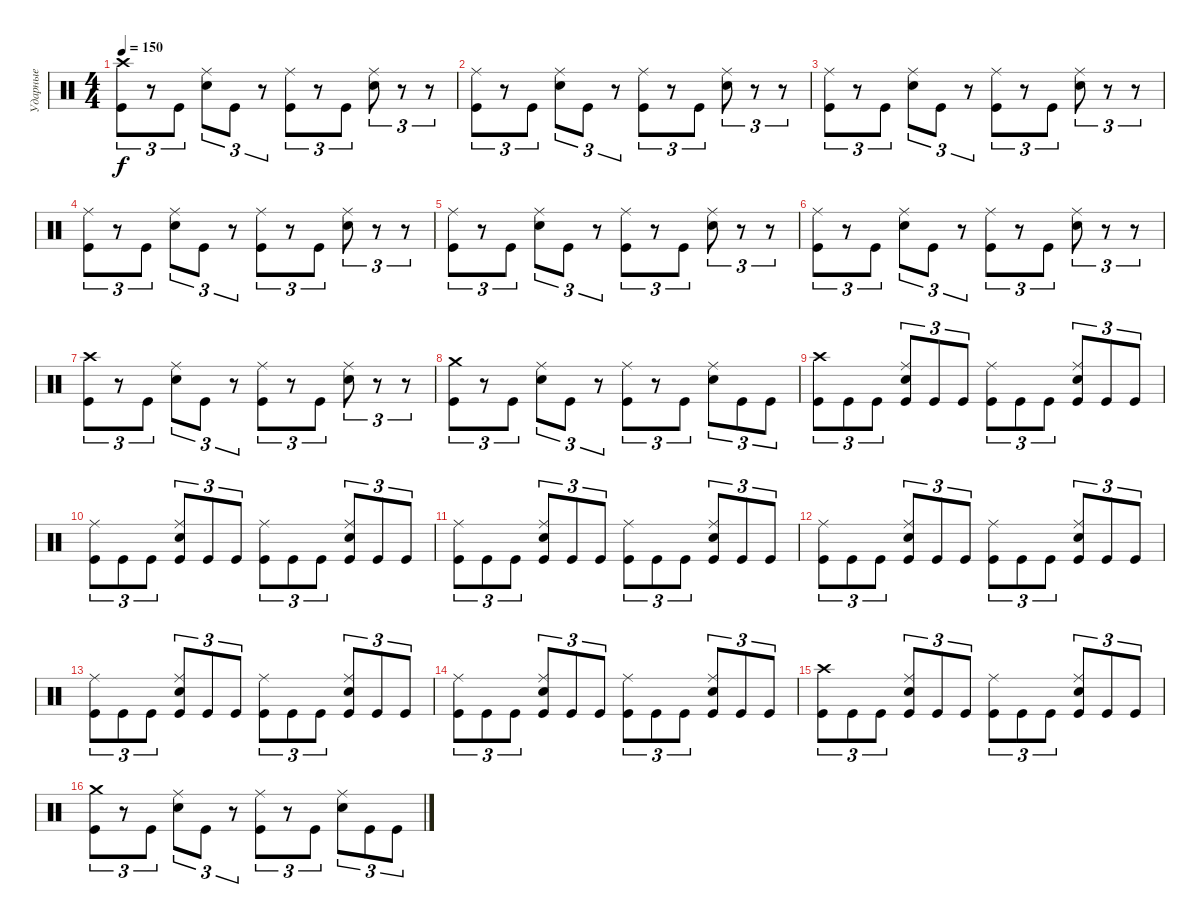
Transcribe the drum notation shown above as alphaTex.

\track ("Ударные" "Ударные") {instrument percussion}
\staff {score}
\articulation defaults
\ts (4 4)
\tempo 150
\clef neutral
\ks c
("Crash high (hit)" "Kick (hit)").8{tu (3 2) dy f} r.8{tu (3 2)} "Kick (hit)".8{tu (3 2)} ("Ride (middle)" "Snare (hit) 2").8{tu (3 2)} "Kick (hit)".8{tu (3 2)} r.8{tu (3 2)} ("Ride (middle)" "Kick (hit)").8{tu (3 2)} r.8{tu (3 2)} "Kick (hit)".8{tu (3 2)} ("Ride (middle)" "Snare (hit) 2").8{tu (3 2)} r.8{tu (3 2)} r.8{tu (3 2)} |
("Ride (middle)" "Kick (hit)").8{tu (3 2)} r.8{tu (3 2)} "Kick (hit)".8{tu (3 2)} ("Ride (middle)" "Snare (hit) 2").8{tu (3 2)} "Kick (hit)".8{tu (3 2)} r.8{tu (3 2)} ("Ride (middle)" "Kick (hit)").8{tu (3 2)} r.8{tu (3 2)} "Kick (hit)".8{tu (3 2)} ("Ride (middle)" "Snare (hit) 2").8{tu (3 2)} r.8{tu (3 2)} r.8{tu (3 2)} |
("Ride (middle)" "Kick (hit)").8{tu (3 2)} r.8{tu (3 2)} "Kick (hit)".8{tu (3 2)} ("Ride (middle)" "Snare (hit) 2").8{tu (3 2)} "Kick (hit)".8{tu (3 2)} r.8{tu (3 2)} ("Ride (middle)" "Kick (hit)").8{tu (3 2)} r.8{tu (3 2)} "Kick (hit)".8{tu (3 2)} ("Ride (middle)" "Snare (hit) 2").8{tu (3 2)} r.8{tu (3 2)} r.8{tu (3 2)} |
("Ride (middle)" "Kick (hit)").8{tu (3 2)} r.8{tu (3 2)} "Kick (hit)".8{tu (3 2)} ("Ride (middle)" "Snare (hit) 2").8{tu (3 2)} "Kick (hit)".8{tu (3 2)} r.8{tu (3 2)} ("Ride (middle)" "Kick (hit)").8{tu (3 2)} r.8{tu (3 2)} "Kick (hit)".8{tu (3 2)} ("Ride (middle)" "Snare (hit) 2").8{tu (3 2)} r.8{tu (3 2)} r.8{tu (3 2)} |
("Ride (middle)" "Kick (hit)").8{tu (3 2)} r.8{tu (3 2)} "Kick (hit)".8{tu (3 2)} ("Ride (middle)" "Snare (hit) 2").8{tu (3 2)} "Kick (hit)".8{tu (3 2)} r.8{tu (3 2)} ("Ride (middle)" "Kick (hit)").8{tu (3 2)} r.8{tu (3 2)} "Kick (hit)".8{tu (3 2)} ("Ride (middle)" "Snare (hit) 2").8{tu (3 2)} r.8{tu (3 2)} r.8{tu (3 2)} |
("Ride (middle)" "Kick (hit)").8{tu (3 2)} r.8{tu (3 2)} "Kick (hit)".8{tu (3 2)} ("Ride (middle)" "Snare (hit) 2").8{tu (3 2)} "Kick (hit)".8{tu (3 2)} r.8{tu (3 2)} ("Ride (middle)" "Kick (hit)").8{tu (3 2)} r.8{tu (3 2)} "Kick (hit)".8{tu (3 2)} ("Ride (middle)" "Snare (hit) 2").8{tu (3 2)} r.8{tu (3 2)} r.8{tu (3 2)} |
("Crash high (hit)" "Kick (hit)").8{tu (3 2)} r.8{tu (3 2)} "Kick (hit)".8{tu (3 2)} ("Ride (middle)" "Snare (hit) 2").8{tu (3 2)} "Kick (hit)".8{tu (3 2)} r.8{tu (3 2)} ("Ride (middle)" "Kick (hit)").8{tu (3 2)} r.8{tu (3 2)} "Kick (hit)".8{tu (3 2)} ("Ride (middle)" "Snare (hit) 2").8{tu (3 2)} r.8{tu (3 2)} r.8{tu (3 2)} |
("Crash medium (hit)" "Kick (hit)").8{tu (3 2)} r.8{tu (3 2)} "Kick (hit)".8{tu (3 2)} ("Ride (middle)" "Snare (hit) 2").8{tu (3 2)} "Kick (hit)".8{tu (3 2)} r.8{tu (3 2)} ("Ride (middle)" "Kick (hit)").8{tu (3 2)} r.8{tu (3 2)} "Kick (hit)".8{tu (3 2)} ("Ride (middle)" "Snare (hit) 2").8{tu (3 2)} "Kick (hit)".8{tu (3 2)} "Kick (hit)".8{tu (3 2)} |
("Crash high (hit)" "Kick (hit)").8{tu (3 2)} "Kick (hit)".8{tu (3 2)} "Kick (hit)".8{tu (3 2)} ("Ride (middle)" "Snare (hit) 2" "Kick (hit)").8{tu (3 2)} "Kick (hit)".8{tu (3 2)} "Kick (hit)".8{tu (3 2)} ("Ride (middle)" "Kick (hit)").8{tu (3 2)} "Kick (hit)".8{tu (3 2)} "Kick (hit)".8{tu (3 2)} ("Ride (middle)" "Snare (hit) 2" "Kick (hit)").8{tu (3 2)} "Kick (hit)".8{tu (3 2)} "Kick (hit)".8{tu (3 2)} |
("Ride (middle)" "Kick (hit)").8{tu (3 2)} "Kick (hit)".8{tu (3 2)} "Kick (hit)".8{tu (3 2)} ("Ride (middle)" "Snare (hit) 2" "Kick (hit)").8{tu (3 2)} "Kick (hit)".8{tu (3 2)} "Kick (hit)".8{tu (3 2)} ("Ride (middle)" "Kick (hit)").8{tu (3 2)} "Kick (hit)".8{tu (3 2)} "Kick (hit)".8{tu (3 2)} ("Ride (middle)" "Snare (hit) 2" "Kick (hit)").8{tu (3 2)} "Kick (hit)".8{tu (3 2)} "Kick (hit)".8{tu (3 2)} |
("Ride (middle)" "Kick (hit)").8{tu (3 2)} "Kick (hit)".8{tu (3 2)} "Kick (hit)".8{tu (3 2)} ("Ride (middle)" "Snare (hit) 2" "Kick (hit)").8{tu (3 2)} "Kick (hit)".8{tu (3 2)} "Kick (hit)".8{tu (3 2)} ("Ride (middle)" "Kick (hit)").8{tu (3 2)} "Kick (hit)".8{tu (3 2)} "Kick (hit)".8{tu (3 2)} ("Ride (middle)" "Snare (hit) 2" "Kick (hit)").8{tu (3 2)} "Kick (hit)".8{tu (3 2)} "Kick (hit)".8{tu (3 2)} |
("Ride (middle)" "Kick (hit)").8{tu (3 2)} "Kick (hit)".8{tu (3 2)} "Kick (hit)".8{tu (3 2)} ("Ride (middle)" "Snare (hit) 2" "Kick (hit)").8{tu (3 2)} "Kick (hit)".8{tu (3 2)} "Kick (hit)".8{tu (3 2)} ("Ride (middle)" "Kick (hit)").8{tu (3 2)} "Kick (hit)".8{tu (3 2)} "Kick (hit)".8{tu (3 2)} ("Ride (middle)" "Snare (hit) 2" "Kick (hit)").8{tu (3 2)} "Kick (hit)".8{tu (3 2)} "Kick (hit)".8{tu (3 2)} |
("Ride (middle)" "Kick (hit)").8{tu (3 2)} "Kick (hit)".8{tu (3 2)} "Kick (hit)".8{tu (3 2)} ("Ride (middle)" "Snare (hit) 2" "Kick (hit)").8{tu (3 2)} "Kick (hit)".8{tu (3 2)} "Kick (hit)".8{tu (3 2)} ("Ride (middle)" "Kick (hit)").8{tu (3 2)} "Kick (hit)".8{tu (3 2)} "Kick (hit)".8{tu (3 2)} ("Ride (middle)" "Snare (hit) 2" "Kick (hit)").8{tu (3 2)} "Kick (hit)".8{tu (3 2)} "Kick (hit)".8{tu (3 2)} |
("Ride (middle)" "Kick (hit)").8{tu (3 2)} "Kick (hit)".8{tu (3 2)} "Kick (hit)".8{tu (3 2)} ("Ride (middle)" "Snare (hit) 2" "Kick (hit)").8{tu (3 2)} "Kick (hit)".8{tu (3 2)} "Kick (hit)".8{tu (3 2)} ("Ride (middle)" "Kick (hit)").8{tu (3 2)} "Kick (hit)".8{tu (3 2)} "Kick (hit)".8{tu (3 2)} ("Ride (middle)" "Snare (hit) 2" "Kick (hit)").8{tu (3 2)} "Kick (hit)".8{tu (3 2)} "Kick (hit)".8{tu (3 2)} |
("Crash high (hit)" "Kick (hit)").8{tu (3 2)} "Kick (hit)".8{tu (3 2)} "Kick (hit)".8{tu (3 2)} ("Ride (middle)" "Snare (hit) 2" "Kick (hit)").8{tu (3 2)} "Kick (hit)".8{tu (3 2)} "Kick (hit)".8{tu (3 2)} ("Ride (middle)" "Kick (hit)").8{tu (3 2)} "Kick (hit)".8{tu (3 2)} "Kick (hit)".8{tu (3 2)} ("Ride (middle)" "Snare (hit) 2" "Kick (hit)").8{tu (3 2)} "Kick (hit)".8{tu (3 2)} "Kick (hit)".8{tu (3 2)} |
("Crash medium (hit)" "Kick (hit)").8{tu (3 2)} r.8{tu (3 2)} "Kick (hit)".8{tu (3 2)} ("Ride (middle)" "Snare (hit) 2").8{tu (3 2)} "Kick (hit)".8{tu (3 2)} r.8{tu (3 2)} ("Ride (middle)" "Kick (hit)").8{tu (3 2)} r.8{tu (3 2)} "Kick (hit)".8{tu (3 2)} ("Ride (middle)" "Snare (hit) 2").8{tu (3 2)} "Kick (hit)".8{tu (3 2)} "Kick (hit)".8{tu (3 2)}
